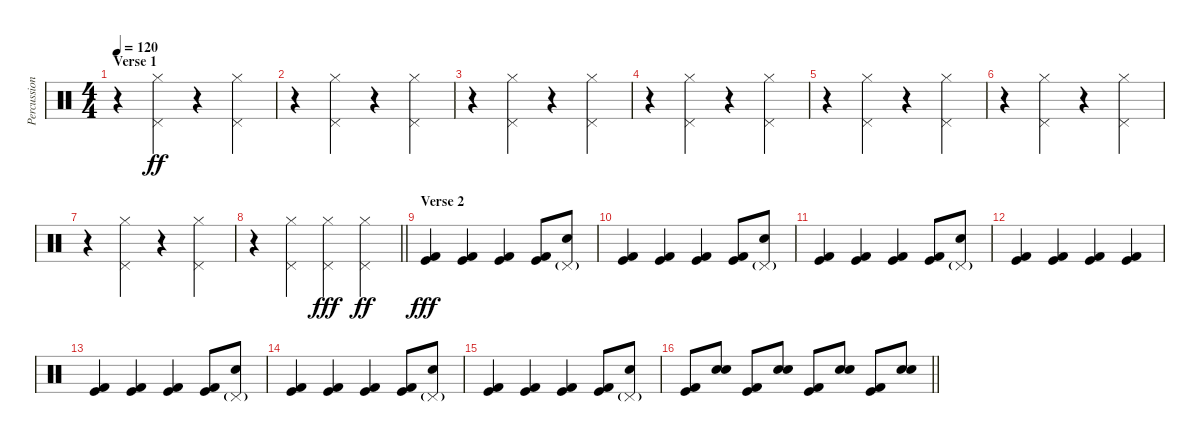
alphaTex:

\track ("Percussion" "Percussion") {instrument percussion}
\staff {score}
\articulation defaults
\ts (4 4)
\section ("" "Verse 1")
\tempo 120
\clef neutral
\ks c
r.4{dy ff} ("Pedal Hi-Hat (hit)" "Hi-Hat (closed)").4 r.4 ("Pedal Hi-Hat (hit)" "Hi-Hat (closed)").4 |
r.4 ("Pedal Hi-Hat (hit)" "Hi-Hat (closed)").4 r.4 ("Pedal Hi-Hat (hit)" "Hi-Hat (closed)").4 |
r.4 ("Pedal Hi-Hat (hit)" "Hi-Hat (closed)").4 r.4 ("Pedal Hi-Hat (hit)" "Hi-Hat (closed)").4 |
r.4 ("Pedal Hi-Hat (hit)" "Hi-Hat (closed)").4 r.4 ("Pedal Hi-Hat (hit)" "Hi-Hat (closed)").4 |
r.4 ("Pedal Hi-Hat (hit)" "Hi-Hat (closed)").4 r.4 ("Pedal Hi-Hat (hit)" "Hi-Hat (closed)").4 |
r.4 ("Pedal Hi-Hat (hit)" "Hi-Hat (closed)").4 r.4 ("Pedal Hi-Hat (hit)" "Hi-Hat (closed)").4 |
r.4 ("Pedal Hi-Hat (hit)" "Hi-Hat (closed)").4 r.4 ("Pedal Hi-Hat (hit)" "Hi-Hat (closed)").4 |
\barLineRight lightlight
r.4 ("Pedal Hi-Hat (hit)" "Hi-Hat (closed)").4 ("Pedal Hi-Hat (hit)" "Hi-Hat (closed)").4{dy fff} ("Pedal Hi-Hat (hit)" "Hi-Hat (closed)").4{dy ff} |
\section ("" "Verse 2")
("Kick (hit)" "Kick (hit) 2").4{dy fff} ("Kick (hit)" "Kick (hit) 2").4 ("Kick (hit)" "Kick (hit) 2").4 ("Kick (hit)" "Kick (hit) 2").8 ("Pedal Hi-Hat (hit)"{g} "Snare (hit) 2").8 |
("Kick (hit)" "Kick (hit) 2").4 ("Kick (hit)" "Kick (hit) 2").4 ("Kick (hit)" "Kick (hit) 2").4 ("Kick (hit)" "Kick (hit) 2").8 ("Pedal Hi-Hat (hit)"{g} "Snare (hit) 2").8 |
("Kick (hit)" "Kick (hit) 2").4 ("Kick (hit)" "Kick (hit) 2").4 ("Kick (hit)" "Kick (hit) 2").4 ("Kick (hit)" "Kick (hit) 2").8 ("Pedal Hi-Hat (hit)"{g} "Snare (hit) 2").8 |
("Kick (hit)" "Kick (hit) 2").4 ("Kick (hit)" "Kick (hit) 2").4 ("Kick (hit)" "Kick (hit) 2").4 ("Kick (hit)" "Kick (hit) 2").4 |
("Kick (hit)" "Kick (hit) 2").4 ("Kick (hit)" "Kick (hit) 2").4 ("Kick (hit)" "Kick (hit) 2").4 ("Kick (hit)" "Kick (hit) 2").8 ("Pedal Hi-Hat (hit)"{g} "Snare (hit) 2").8 |
("Kick (hit)" "Kick (hit) 2").4 ("Kick (hit)" "Kick (hit) 2").4 ("Kick (hit)" "Kick (hit) 2").4 ("Kick (hit)" "Kick (hit) 2").8 ("Pedal Hi-Hat (hit)"{g} "Snare (hit) 2").8 |
("Kick (hit)" "Kick (hit) 2").4 ("Kick (hit)" "Kick (hit) 2").4 ("Kick (hit)" "Kick (hit) 2").4 ("Kick (hit)" "Kick (hit) 2").8 ("Pedal Hi-Hat (hit)"{g} "Snare (hit) 2").8 |
\barLineRight lightlight
("Kick (hit)" "Kick (hit) 2").8 ("Electric Snare (hit)" "Snare (hit) 2").8 ("Kick (hit)" "Kick (hit) 2").8 ("Electric Snare (hit)" "Snare (hit) 2").8 ("Kick (hit)" "Kick (hit) 2").8 ("Electric Snare (hit)" "Snare (hit) 2").8 ("Kick (hit)" "Kick (hit) 2").8 ("Electric Snare (hit)" "Snare (hit) 2").8
